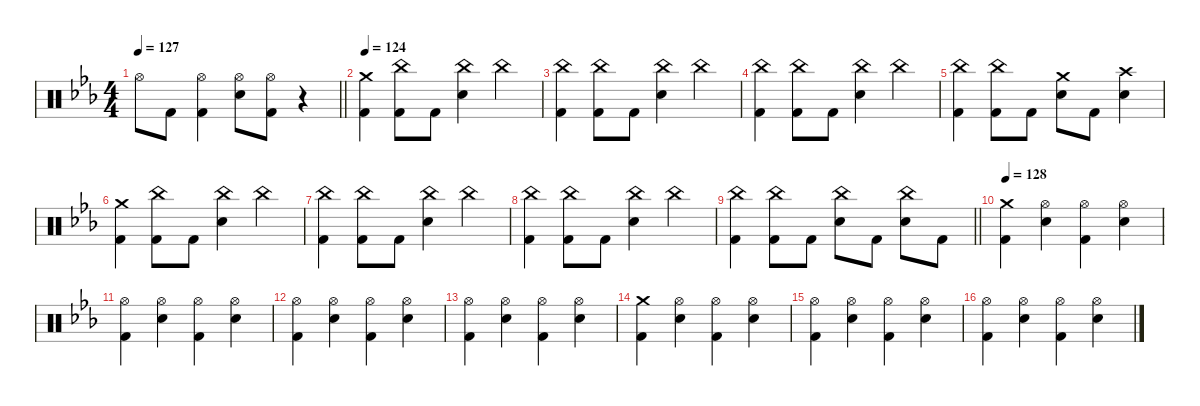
\defaultSystemsLayout 4
\hideDynamics
\bracketExtendMode nobrackets
\singleTrackTrackNamePolicy hidden
\multiTrackTrackNamePolicy hidden
\firstSystemTrackNameMode fullname
\otherSystemsTrackNameOrientation horizontal
\track ("Drums" "drm.") {instrument percussion}
\staff {score}
\articulation defaults
\ts (4 4)
\tempo 127
\clef neutral
\barLineRight lightlight
\ks cminor "Hi-Hat (open)"{acc forcenatural}.8{dy mp beam Down} "Kick (hit) 2"{acc forcenatural}.8{dy f beam Down}
("Hi-Hat (open)"{acc forcenatural} "Kick (hit) 2"{acc forcenatural}).4{dy mp beam Down} ("Hi-Hat (open)"{acc forcenatural} "Snare (hit) 2"{acc forcenatural}).8{beam Down} ("Hi-Hat (open)"{acc forcenatural} "Kick (hit) 2"{acc forcenatural}).8{beam Down} r.4{beam Down} |
\tempo 124
("Crash medium (hit)"{acc forcenatural} "Kick (hit) 2"{acc forcenatural}).4{dy f beam Down} ("China (hit)"{acc forcenatural} "Kick (hit) 2"{acc forcenatural}).8{dy mp beam Down} "Kick (hit) 2"{acc forcenatural}.8{dy f beam Down} ("China (hit)"{acc forcenatural} "Snare (hit) 2"{acc forcenatural}).4{dy mp beam Down} "China (hit)"{acc forcenatural}.4{beam Down} |
("China (hit)"{acc forcenatural} "Kick (hit) 2"{acc forcenatural}).4{beam Down} ("China (hit)"{acc forcenatural} "Kick (hit) 2"{acc forcenatural}).8{beam Down} "Kick (hit) 2"{acc forcenatural}.8{dy f beam Down} ("China (hit)"{acc forcenatural} "Snare (hit) 2"{acc forcenatural}).4{dy mp beam Down} "China (hit)"{acc forcenatural}.4{beam Down} |
("China (hit)"{acc forcenatural} "Kick (hit) 2"{acc forcenatural}).4{beam Down} ("China (hit)"{acc forcenatural} "Kick (hit) 2"{acc forcenatural}).8{beam Down} "Kick (hit) 2"{acc forcenatural}.8{dy f beam Down} ("China (hit)"{acc forcenatural} "Snare (hit) 2"{acc forcenatural}).4{dy mp beam Down} "China (hit)"{acc forcenatural}.4{beam Down} |
("China (hit)"{acc forcenatural} "Kick (hit) 2"{acc forcenatural}).4{beam Down} ("China (hit)"{acc forcenatural} "Kick (hit) 2"{acc forcenatural}).8{beam Down} "Kick (hit) 2"{acc forcenatural}.8{dy f beam Down} ("Crash medium (hit)"{acc forcenatural} "Snare (hit) 2"{acc forcenatural}).8{beam Down} "Kick (hit) 2"{acc forcenatural}.8{beam Down} ("Crash high (hit)"{acc forcenatural} "Snare (hit) 2"{acc forcenatural}).4{beam Down} |
("Crash medium (hit)"{acc forcenatural} "Kick (hit) 2"{acc forcenatural}).4{beam Down} ("China (hit)"{acc forcenatural} "Kick (hit) 2"{acc forcenatural}).8{dy mp beam Down} "Kick (hit) 2"{acc forcenatural}.8{dy f beam Down} ("China (hit)"{acc forcenatural} "Snare (hit) 2"{acc forcenatural}).4{dy mp beam Down} "China (hit)"{acc forcenatural}.4{beam Down} |
("China (hit)"{acc forcenatural} "Kick (hit) 2"{acc forcenatural}).4{beam Down} ("China (hit)"{acc forcenatural} "Kick (hit) 2"{acc forcenatural}).8{beam Down} "Kick (hit) 2"{acc forcenatural}.8{dy f beam Down} ("China (hit)"{acc forcenatural} "Snare (hit) 2"{acc forcenatural}).4{dy mp beam Down} "China (hit)"{acc forcenatural}.4{beam Down} |
("China (hit)"{acc forcenatural} "Kick (hit) 2"{acc forcenatural}).4{beam Down} ("China (hit)"{acc forcenatural} "Kick (hit) 2"{acc forcenatural}).8{beam Down} "Kick (hit) 2"{acc forcenatural}.8{dy f beam Down} ("China (hit)"{acc forcenatural} "Snare (hit) 2"{acc forcenatural}).4{dy mp beam Down} "China (hit)"{acc forcenatural}.4{beam Down} |
\barLineRight lightlight
("China (hit)"{acc forcenatural} "Kick (hit) 2"{acc forcenatural}).4{beam Down} ("China (hit)"{acc forcenatural} "Kick (hit) 2"{acc forcenatural}).8{beam Down} "Kick (hit) 2"{acc forcenatural}.8{dy f beam Down} ("China (hit)"{acc forcenatural} "Snare (hit) 2"{acc forcenatural}).8{dy mp beam Down} "Kick (hit) 2"{acc forcenatural}.8{dy f beam Down} ("China (hit)"{acc forcenatural} "Snare (hit) 2"{acc forcenatural}).8{dy mp beam Down} "Kick (hit) 2"{acc forcenatural}.8{dy f beam Down} |
\tempo 128
("Crash medium (hit)"{acc forcenatural} "Kick (hit) 2"{acc forcenatural}).4{beam Down} ("Hi-Hat (open)"{acc forcenatural} "Snare (hit) 2"{acc forcenatural}).4{dy mp beam Down} ("Hi-Hat (open)"{acc forcenatural} "Kick (hit) 2"{acc forcenatural}).4{beam Down} ("Hi-Hat (open)"{acc forcenatural} "Snare (hit) 2"{acc forcenatural}).4{beam Down} |
("Hi-Hat (open)"{acc forcenatural} "Kick (hit) 2"{acc forcenatural}).4{beam Down} ("Hi-Hat (open)"{acc forcenatural} "Snare (hit) 2"{acc forcenatural}).4{beam Down} ("Hi-Hat (open)"{acc forcenatural} "Kick (hit) 2"{acc forcenatural}).4{beam Down} ("Hi-Hat (open)"{acc forcenatural} "Snare (hit) 2"{acc forcenatural}).4{beam Down} |
("Hi-Hat (open)"{acc forcenatural} "Kick (hit) 2"{acc forcenatural}).4{beam Down} ("Hi-Hat (open)"{acc forcenatural} "Snare (hit) 2"{acc forcenatural}).4{beam Down} ("Hi-Hat (open)"{acc forcenatural} "Kick (hit) 2"{acc forcenatural}).4{beam Down} ("Hi-Hat (open)"{acc forcenatural} "Snare (hit) 2"{acc forcenatural}).4{beam Down} |
("Hi-Hat (open)"{acc forcenatural} "Kick (hit) 2"{acc forcenatural}).4{beam Down} ("Hi-Hat (open)"{acc forcenatural} "Snare (hit) 2"{acc forcenatural}).4{beam Down} ("Hi-Hat (open)"{acc forcenatural} "Kick (hit) 2"{acc forcenatural}).4{beam Down} ("Hi-Hat (open)"{acc forcenatural} "Snare (hit) 2"{acc forcenatural}).4{beam Down} |
("Crash medium (hit)"{acc forcenatural} "Kick (hit) 2"{acc forcenatural}).4{dy f beam Down} ("Hi-Hat (open)"{acc forcenatural} "Snare (hit) 2"{acc forcenatural}).4{dy mp beam Down} ("Hi-Hat (open)"{acc forcenatural} "Kick (hit) 2"{acc forcenatural}).4{beam Down} ("Hi-Hat (open)"{acc forcenatural} "Snare (hit) 2"{acc forcenatural}).4{beam Down} |
("Hi-Hat (open)"{acc forcenatural} "Kick (hit) 2"{acc forcenatural}).4{beam Down} ("Hi-Hat (open)"{acc forcenatural} "Snare (hit) 2"{acc forcenatural}).4{beam Down} ("Hi-Hat (open)"{acc forcenatural} "Kick (hit) 2"{acc forcenatural}).4{beam Down} ("Hi-Hat (open)"{acc forcenatural} "Snare (hit) 2"{acc forcenatural}).4{beam Down} |
("Hi-Hat (open)"{acc forcenatural} "Kick (hit) 2"{acc forcenatural}).4{beam Down} ("Hi-Hat (open)"{acc forcenatural} "Snare (hit) 2"{acc forcenatural}).4{beam Down} ("Hi-Hat (open)"{acc forcenatural} "Kick (hit) 2"{acc forcenatural}).4{beam Down} ("Hi-Hat (open)"{acc forcenatural} "Snare (hit) 2"{acc forcenatural}).4{beam Down}
